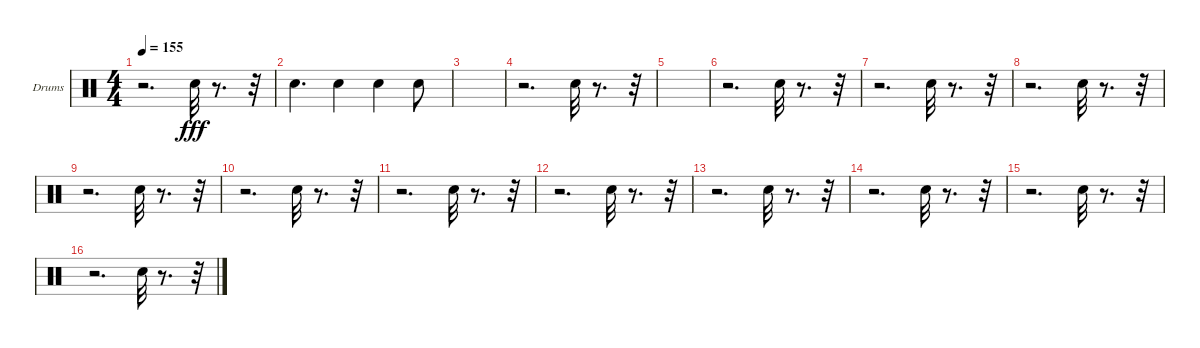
\bracketExtendMode groupsimilarinstruments
\firstSystemTrackNameOrientation horizontal
\otherSystemsTrackNameOrientation horizontal
\track ("Е. Кулаков" "Drums") {instrument percussion}
\staff {score}
\articulation defaults
\ts (4 4)
\tempo 155
\clef neutral
\ks c
r.2{d dy fff} "Snare (hit) 2".32 r.8{d} r.32 |
"Snare (hit) 2".4{d} "Snare (hit) 2".4 "Snare (hit) 2".4 "Snare (hit) 2".8 |
|
r.2{d} "Snare (hit) 2".32 r.8{d} r.32 |
|
r.2{d} "Snare (hit) 2".32 r.8{d} r.32 |
r.2{d} "Snare (hit) 2".32 r.8{d} r.32 |
r.2{d} "Snare (hit) 2".32 r.8{d} r.32 |
r.2{d} "Snare (hit) 2".32 r.8{d} r.32 |
r.2{d} "Snare (hit) 2".32 r.8{d} r.32 |
r.2{d} "Snare (hit) 2".32 r.8{d} r.32 |
r.2{d} "Snare (hit) 2".32 r.8{d} r.32 |
r.2{d} "Snare (hit) 2".32 r.8{d} r.32 |
r.2{d} "Snare (hit) 2".32 r.8{d} r.32 |
r.2{d} "Snare (hit) 2".32 r.8{d} r.32 |
r.2{d} "Snare (hit) 2".32 r.8{d} r.32
